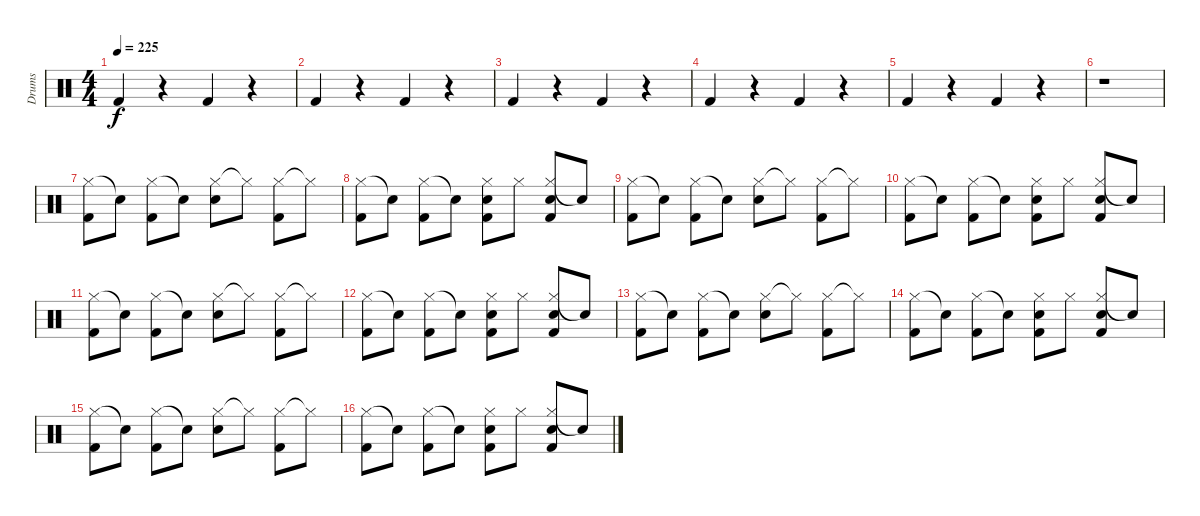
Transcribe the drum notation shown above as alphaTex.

\track ("Drums" "Drums") {instrument percussion}
\staff {score}
\articulation defaults
\ts (4 4)
\tempo 225
\clef neutral
\ks c "Kick (hit) 2".4{dy f}
r.4 "Kick (hit) 2".4 r.4 |
"Kick (hit) 2".4 r.4 "Kick (hit) 2".4 r.4 |
"Kick (hit) 2".4 r.4 "Kick (hit) 2".4 r.4 |
"Kick (hit) 2".4 r.4 "Kick (hit) 2".4 r.4 |
"Kick (hit) 2".4 r.4 "Kick (hit) 2".4 r.4 |
r.1 |
("Hi-Hat (closed)" "Kick (hit) 2").8 "Snare (hit)"{t}.8 ("Hi-Hat (closed)" "Kick (hit) 2").8 "Snare (hit)"{t}.8 ("Hi-Hat (closed)" "Snare (hit) 2").8 "Hi-Hat (closed)"{t}.8 ("Hi-Hat (closed)" "Kick (hit) 2").8 "Hi-Hat (closed)"{t}.8 |
("Hi-Hat (closed)" "Kick (hit) 2").8 "Snare (hit)"{t}.8 ("Hi-Hat (closed)" "Kick (hit) 2").8 "Snare (hit)"{t}.8 ("Hi-Hat (closed)" "Snare (hit) 2" "Kick (hit) 2").8 "Hi-Hat (closed)".8 ("Hi-Hat (closed)" "Snare (hit) 2" "Kick (hit) 2").8 "Snare (hit)"{t}.8 |
("Hi-Hat (closed)" "Kick (hit) 2").8 "Snare (hit)"{t}.8 ("Hi-Hat (closed)" "Kick (hit) 2").8 "Snare (hit)"{t}.8 ("Hi-Hat (closed)" "Snare (hit) 2").8 "Hi-Hat (closed)"{t}.8 ("Hi-Hat (closed)" "Kick (hit) 2").8 "Hi-Hat (closed)"{t}.8 |
("Hi-Hat (closed)" "Kick (hit) 2").8 "Snare (hit)"{t}.8 ("Hi-Hat (closed)" "Kick (hit) 2").8 "Snare (hit)"{t}.8 ("Hi-Hat (closed)" "Snare (hit) 2" "Kick (hit) 2").8 "Hi-Hat (closed)".8 ("Hi-Hat (closed)" "Snare (hit) 2" "Kick (hit) 2").8 "Snare (hit)"{t}.8 |
("Hi-Hat (closed)" "Kick (hit) 2").8 "Snare (hit)"{t}.8 ("Hi-Hat (closed)" "Kick (hit) 2").8 "Snare (hit)"{t}.8 ("Hi-Hat (closed)" "Snare (hit) 2").8 "Hi-Hat (closed)"{t}.8 ("Hi-Hat (closed)" "Kick (hit) 2").8 "Hi-Hat (closed)"{t}.8 |
("Hi-Hat (closed)" "Kick (hit) 2").8 "Snare (hit)"{t}.8 ("Hi-Hat (closed)" "Kick (hit) 2").8 "Snare (hit)"{t}.8 ("Hi-Hat (closed)" "Snare (hit) 2" "Kick (hit) 2").8 "Hi-Hat (closed)".8 ("Hi-Hat (closed)" "Snare (hit) 2" "Kick (hit) 2").8 "Snare (hit)"{t}.8 |
("Hi-Hat (closed)" "Kick (hit) 2").8 "Snare (hit)"{t}.8 ("Hi-Hat (closed)" "Kick (hit) 2").8 "Snare (hit)"{t}.8 ("Hi-Hat (closed)" "Snare (hit) 2").8 "Hi-Hat (closed)"{t}.8 ("Hi-Hat (closed)" "Kick (hit) 2").8 "Hi-Hat (closed)"{t}.8 |
("Hi-Hat (closed)" "Kick (hit) 2").8 "Snare (hit)"{t}.8 ("Hi-Hat (closed)" "Kick (hit) 2").8 "Snare (hit)"{t}.8 ("Hi-Hat (closed)" "Snare (hit) 2" "Kick (hit) 2").8 "Hi-Hat (closed)".8 ("Hi-Hat (closed)" "Snare (hit) 2" "Kick (hit) 2").8 "Snare (hit)"{t}.8 |
("Hi-Hat (closed)" "Kick (hit) 2").8 "Snare (hit)"{t}.8 ("Hi-Hat (closed)" "Kick (hit) 2").8 "Snare (hit)"{t}.8 ("Hi-Hat (closed)" "Snare (hit) 2").8 "Hi-Hat (closed)"{t}.8 ("Hi-Hat (closed)" "Kick (hit) 2").8 "Hi-Hat (closed)"{t}.8 |
("Hi-Hat (closed)" "Kick (hit) 2").8 "Snare (hit)"{t}.8 ("Hi-Hat (closed)" "Kick (hit) 2").8 "Snare (hit)"{t}.8 ("Hi-Hat (closed)" "Snare (hit) 2" "Kick (hit) 2").8 "Hi-Hat (closed)".8 ("Hi-Hat (closed)" "Snare (hit) 2" "Kick (hit) 2").8 "Snare (hit)"{t}.8
